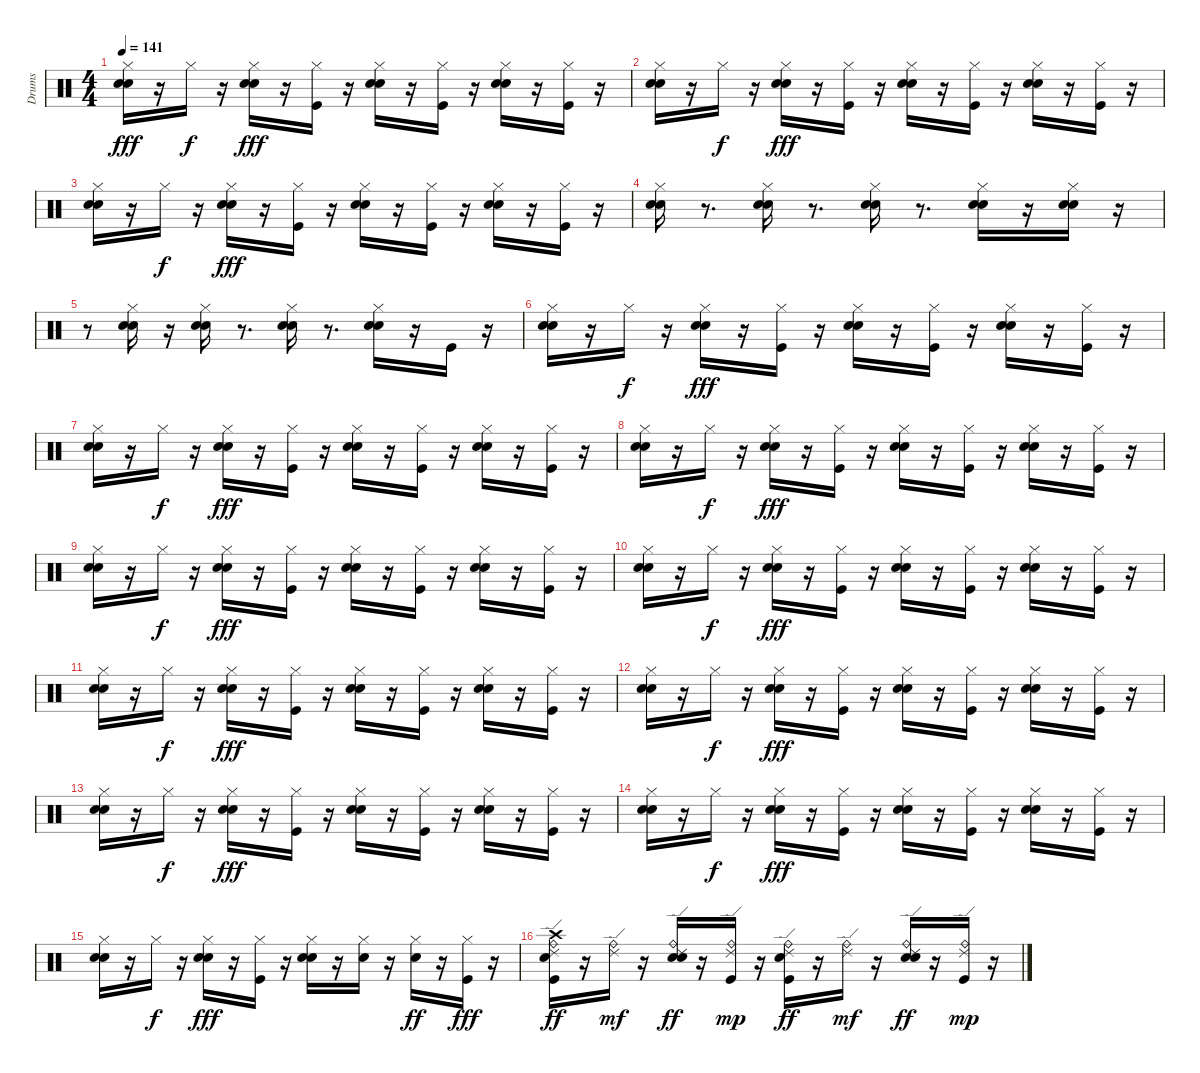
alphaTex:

\track ("Drums" "Drums") {instrument percussion}
\staff {score}
\articulation defaults
\ts (4 4)
\tempo 141
\clef neutral
\ks c
("Hand Clap (hit)" "Electric Snare (hit)" "Hi-Hat (closed)").16{dy fff} r.16 "Hi-Hat (closed)".16{dy f} r.16 ("Hand Clap (hit)" "Electric Snare (hit)" "Hi-Hat (closed)").16{dy fff} r.16 ("Kick (hit)" "Hi-Hat (closed)").16 r.16 ("Hand Clap (hit)" "Electric Snare (hit)" "Hi-Hat (closed)").16 r.16 ("Kick (hit)" "Hi-Hat (closed)").16 r.16 ("Hand Clap (hit)" "Electric Snare (hit)" "Hi-Hat (closed)").16 r.16 ("Kick (hit)" "Hi-Hat (closed)").16 r.16 |
("Hand Clap (hit)" "Electric Snare (hit)" "Hi-Hat (closed)").16 r.16 "Hi-Hat (closed)".16{dy f} r.16 ("Hand Clap (hit)" "Electric Snare (hit)" "Hi-Hat (closed)").16{dy fff} r.16 ("Kick (hit)" "Hi-Hat (closed)").16 r.16 ("Hand Clap (hit)" "Electric Snare (hit)" "Hi-Hat (closed)").16 r.16 ("Kick (hit)" "Hi-Hat (closed)").16 r.16 ("Hand Clap (hit)" "Electric Snare (hit)" "Hi-Hat (closed)").16 r.16 ("Kick (hit)" "Hi-Hat (closed)").16 r.16 |
("Hand Clap (hit)" "Electric Snare (hit)" "Hi-Hat (closed)").16 r.16 "Hi-Hat (closed)".16{dy f} r.16 ("Hand Clap (hit)" "Electric Snare (hit)" "Hi-Hat (closed)").16{dy fff} r.16 ("Kick (hit)" "Hi-Hat (closed)").16 r.16 ("Hand Clap (hit)" "Electric Snare (hit)" "Hi-Hat (closed)").16 r.16 ("Kick (hit)" "Hi-Hat (closed)").16 r.16 ("Hand Clap (hit)" "Electric Snare (hit)" "Hi-Hat (closed)").16 r.16 ("Kick (hit)" "Hi-Hat (closed)").16 r.16 |
("Hand Clap (hit)" "Electric Snare (hit)" "Hi-Hat (closed)").16 r.8{d} ("Hand Clap (hit)" "Electric Snare (hit)" "Hi-Hat (closed)").16 r.8{d} ("Hand Clap (hit)" "Electric Snare (hit)" "Hi-Hat (closed)").16 r.8{d} ("Hand Clap (hit)" "Electric Snare (hit)" "Hi-Hat (closed)").16 r.16 ("Hand Clap (hit)" "Electric Snare (hit)" "Hi-Hat (closed)").16 r.16 |
r.8 ("Hand Clap (hit)" "Electric Snare (hit)" "Hi-Hat (closed)").16 r.16 ("Hand Clap (hit)" "Electric Snare (hit)" "Hi-Hat (closed)").16 r.8{d} ("Hand Clap (hit)" "Electric Snare (hit)" "Hi-Hat (closed)").16 r.8{d} ("Hand Clap (hit)" "Electric Snare (hit)" "Hi-Hat (closed)").16 r.16 "Kick (hit)".16 r.16 |
("Hand Clap (hit)" "Electric Snare (hit)" "Hi-Hat (closed)").16 r.16 "Hi-Hat (closed)".16{dy f} r.16 ("Hand Clap (hit)" "Electric Snare (hit)" "Hi-Hat (closed)").16{dy fff} r.16 ("Kick (hit)" "Hi-Hat (closed)").16 r.16 ("Hand Clap (hit)" "Electric Snare (hit)" "Hi-Hat (closed)").16 r.16 ("Kick (hit)" "Hi-Hat (closed)").16 r.16 ("Hand Clap (hit)" "Electric Snare (hit)" "Hi-Hat (closed)").16 r.16 ("Kick (hit)" "Hi-Hat (closed)").16 r.16 |
("Hand Clap (hit)" "Electric Snare (hit)" "Hi-Hat (closed)").16 r.16 "Hi-Hat (closed)".16{dy f} r.16 ("Hand Clap (hit)" "Electric Snare (hit)" "Hi-Hat (closed)").16{dy fff} r.16 ("Kick (hit)" "Hi-Hat (closed)").16 r.16 ("Hand Clap (hit)" "Electric Snare (hit)" "Hi-Hat (closed)").16 r.16 ("Kick (hit)" "Hi-Hat (closed)").16 r.16 ("Hand Clap (hit)" "Electric Snare (hit)" "Hi-Hat (closed)").16 r.16 ("Kick (hit)" "Hi-Hat (closed)").16 r.16 |
("Hand Clap (hit)" "Electric Snare (hit)" "Hi-Hat (closed)").16 r.16 "Hi-Hat (closed)".16{dy f} r.16 ("Hand Clap (hit)" "Electric Snare (hit)" "Hi-Hat (closed)").16{dy fff} r.16 ("Kick (hit)" "Hi-Hat (closed)").16 r.16 ("Hand Clap (hit)" "Electric Snare (hit)" "Hi-Hat (closed)").16 r.16 ("Kick (hit)" "Hi-Hat (closed)").16 r.16 ("Hand Clap (hit)" "Electric Snare (hit)" "Hi-Hat (closed)").16 r.16 ("Kick (hit)" "Hi-Hat (closed)").16 r.16 |
("Hand Clap (hit)" "Electric Snare (hit)" "Hi-Hat (closed)").16 r.16 "Hi-Hat (closed)".16{dy f} r.16 ("Hand Clap (hit)" "Electric Snare (hit)" "Hi-Hat (closed)").16{dy fff} r.16 ("Kick (hit)" "Hi-Hat (closed)").16 r.16 ("Hand Clap (hit)" "Electric Snare (hit)" "Hi-Hat (closed)").16 r.16 ("Kick (hit)" "Hi-Hat (closed)").16 r.16 ("Hand Clap (hit)" "Electric Snare (hit)" "Hi-Hat (closed)").16 r.16 ("Kick (hit)" "Hi-Hat (closed)").16 r.16 |
("Hand Clap (hit)" "Electric Snare (hit)" "Hi-Hat (closed)").16 r.16 "Hi-Hat (closed)".16{dy f} r.16 ("Hand Clap (hit)" "Electric Snare (hit)" "Hi-Hat (closed)").16{dy fff} r.16 ("Kick (hit)" "Hi-Hat (closed)").16 r.16 ("Hand Clap (hit)" "Electric Snare (hit)" "Hi-Hat (closed)").16 r.16 ("Kick (hit)" "Hi-Hat (closed)").16 r.16 ("Hand Clap (hit)" "Electric Snare (hit)" "Hi-Hat (closed)").16 r.16 ("Kick (hit)" "Hi-Hat (closed)").16 r.16 |
("Hand Clap (hit)" "Electric Snare (hit)" "Hi-Hat (closed)").16 r.16 "Hi-Hat (closed)".16{dy f} r.16 ("Hand Clap (hit)" "Electric Snare (hit)" "Hi-Hat (closed)").16{dy fff} r.16 ("Kick (hit)" "Hi-Hat (closed)").16 r.16 ("Hand Clap (hit)" "Electric Snare (hit)" "Hi-Hat (closed)").16 r.16 ("Kick (hit)" "Hi-Hat (closed)").16 r.16 ("Hand Clap (hit)" "Electric Snare (hit)" "Hi-Hat (closed)").16 r.16 ("Kick (hit)" "Hi-Hat (closed)").16 r.16 |
("Hand Clap (hit)" "Electric Snare (hit)" "Hi-Hat (closed)").16 r.16 "Hi-Hat (closed)".16{dy f} r.16 ("Hand Clap (hit)" "Electric Snare (hit)" "Hi-Hat (closed)").16{dy fff} r.16 ("Kick (hit)" "Hi-Hat (closed)").16 r.16 ("Hand Clap (hit)" "Electric Snare (hit)" "Hi-Hat (closed)").16 r.16 ("Kick (hit)" "Hi-Hat (closed)").16 r.16 ("Hand Clap (hit)" "Electric Snare (hit)" "Hi-Hat (closed)").16 r.16 ("Kick (hit)" "Hi-Hat (closed)").16 r.16 |
("Hand Clap (hit)" "Electric Snare (hit)" "Hi-Hat (closed)").16 r.16 "Hi-Hat (closed)".16{dy f} r.16 ("Hand Clap (hit)" "Electric Snare (hit)" "Hi-Hat (closed)").16{dy fff} r.16 ("Kick (hit)" "Hi-Hat (closed)").16 r.16 ("Hand Clap (hit)" "Electric Snare (hit)" "Hi-Hat (closed)").16 r.16 ("Kick (hit)" "Hi-Hat (closed)").16 r.16 ("Hand Clap (hit)" "Electric Snare (hit)" "Hi-Hat (closed)").16 r.16 ("Kick (hit)" "Hi-Hat (closed)").16 r.16 |
("Hand Clap (hit)" "Electric Snare (hit)" "Hi-Hat (closed)").16 r.16 "Hi-Hat (closed)".16{dy f} r.16 ("Hand Clap (hit)" "Electric Snare (hit)" "Hi-Hat (closed)").16{dy fff} r.16 ("Kick (hit)" "Hi-Hat (closed)").16 r.16 ("Hand Clap (hit)" "Electric Snare (hit)" "Hi-Hat (closed)").16 r.16 ("Kick (hit)" "Hi-Hat (closed)").16 r.16 ("Hand Clap (hit)" "Electric Snare (hit)" "Hi-Hat (closed)").16 r.16 ("Kick (hit)" "Hi-Hat (closed)").16 r.16 |
("Hand Clap (hit)" "Electric Snare (hit)" "Hi-Hat (closed)").16 r.16 "Hi-Hat (closed)".16{dy f} r.16 ("Hand Clap (hit)" "Electric Snare (hit)" "Hi-Hat (closed)").16{dy fff} r.16 ("Kick (hit)" "Hi-Hat (closed)").16 r.16 ("Hand Clap (hit)" "Electric Snare (hit)" "Hi-Hat (closed)").16 r.16 ("Electric Snare (hit)" "Hi-Hat (closed)").16 r.16 ("Hand Clap (hit)" "Hi-Hat (closed)").16{dy ff} r.16 ("Kick (hit)" "Hi-Hat (closed)").16{dy fff} r.16 |
("Kick (hit)" "Hand Clap (hit)" "Crash high (hit)" "Ride (bell)" "Ride (edge) 2").16{dy ff} r.16 ("Ride (bell)" "Ride (edge) 2").16{dy mf} r.16 ("Hand Clap (hit)" "Electric Snare (hit)" "Ride (bell)" "Ride (edge) 2").16{dy ff} r.16 ("Kick (hit)" "Ride (bell)" "Ride (edge) 2").16{dy mp} r.16 ("Kick (hit)" "Hand Clap (hit)" "Ride (bell)" "Ride (edge) 2").16{dy ff} r.16 ("Ride (bell)" "Ride (edge) 2").16{dy mf} r.16 ("Hand Clap (hit)" "Electric Snare (hit)" "Ride (bell)" "Ride (edge) 2").16{dy ff} r.16 ("Kick (hit)" "Ride (bell)" "Ride (edge) 2").16{dy mp} r.16
